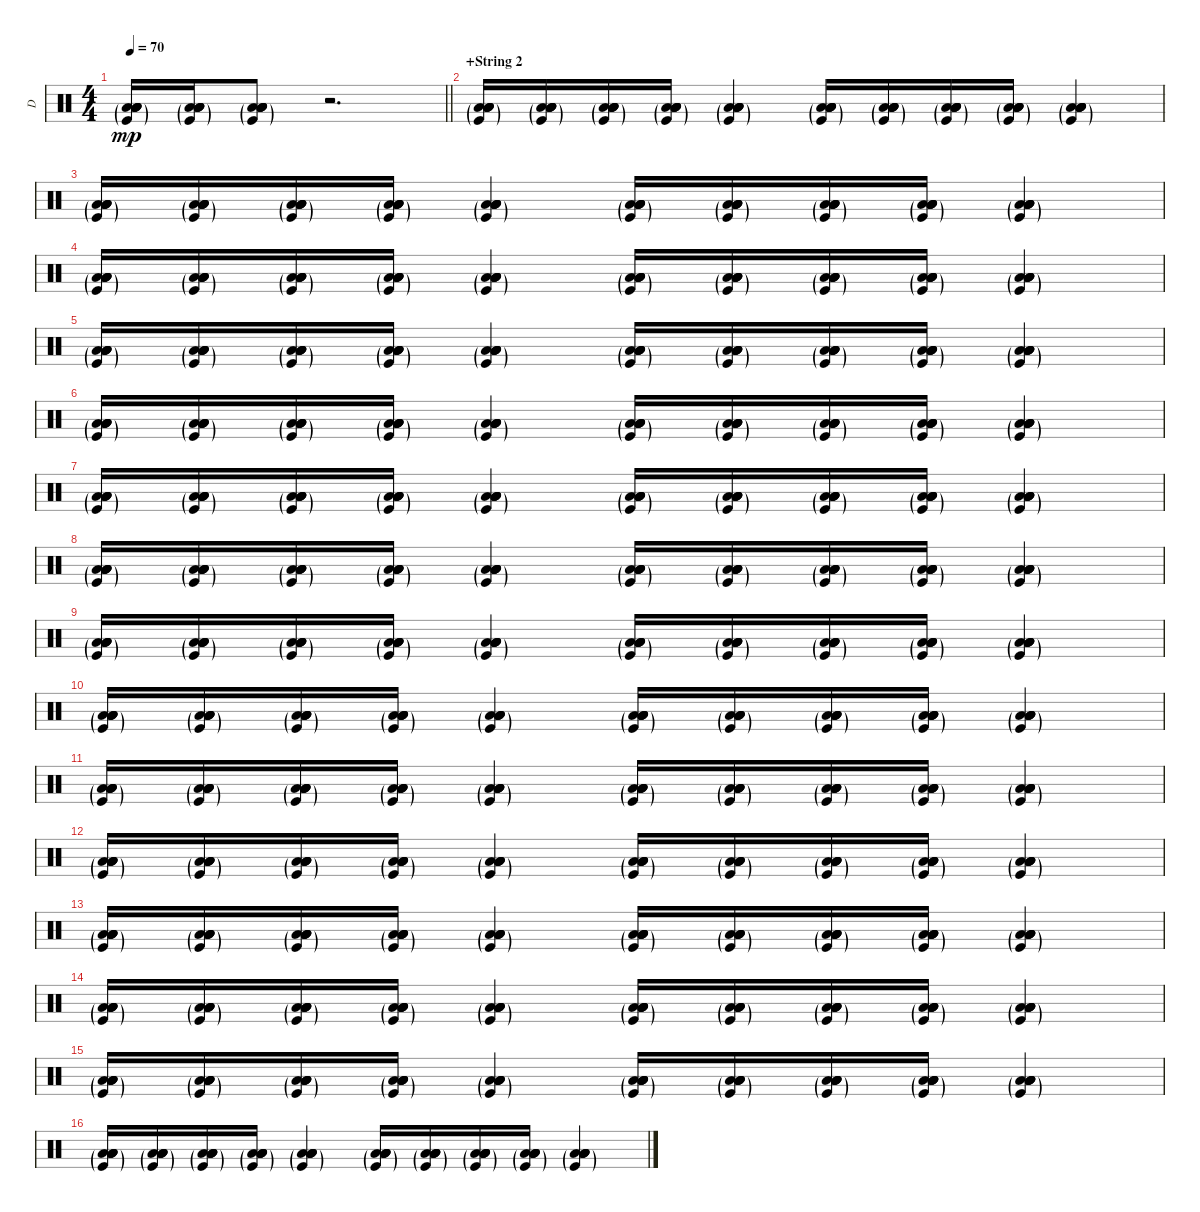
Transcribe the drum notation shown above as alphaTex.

\track ("D" "D") {instrument percussion}
\staff {score}
\articulation defaults
\ts (4 4)
\tempo 70
\clef neutral
\barLineRight lightlight
\ks c
("Low Floor Tom (hit)"{g} "Low Floor Tom (hit)"{g} "Low Floor Tom (hit)"{g} "Low Floor Tom (hit)"{g} "Low Floor Tom (hit)"{g} "Kick (hit)"{g}).16{dy mp} ("Low Floor Tom (hit)"{g} "Low Floor Tom (hit)"{g} "Low Floor Tom (hit)"{g} "Low Floor Tom (hit)"{g} "Low Floor Tom (hit)"{g} "Kick (hit)"{g}).16 ("Low Floor Tom (hit)"{g} "Low Floor Tom (hit)"{g} "Low Floor Tom (hit)"{g} "Low Floor Tom (hit)"{g} "Low Floor Tom (hit)"{g} "Kick (hit)"{g}).8 r.2{d} |
\section ("" "+String 2")
("Low Floor Tom (hit)"{g} "Low Floor Tom (hit)"{g} "Low Floor Tom (hit)"{g} "Low Floor Tom (hit)"{g} "Low Floor Tom (hit)"{g} "Kick (hit)"{g}).16 ("Low Floor Tom (hit)"{g} "Low Floor Tom (hit)"{g} "Low Floor Tom (hit)"{g} "Low Floor Tom (hit)"{g} "Low Floor Tom (hit)"{g} "Kick (hit)"{g}).16 ("Low Floor Tom (hit)"{g} "Low Floor Tom (hit)"{g} "Low Floor Tom (hit)"{g} "Low Floor Tom (hit)"{g} "Low Floor Tom (hit)"{g} "Kick (hit)"{g}).16 ("Low Floor Tom (hit)"{g} "Low Floor Tom (hit)"{g} "Low Floor Tom (hit)"{g} "Low Floor Tom (hit)"{g} "Low Floor Tom (hit)"{g} "Kick (hit)"{g}).16 ("Low Floor Tom (hit)"{g} "Low Floor Tom (hit)"{g} "Low Floor Tom (hit)"{g} "Low Floor Tom (hit)"{g} "Low Floor Tom (hit)"{g} "Kick (hit)"{g}).4 ("Low Floor Tom (hit)"{g} "Low Floor Tom (hit)"{g} "Low Floor Tom (hit)"{g} "Low Floor Tom (hit)"{g} "Low Floor Tom (hit)"{g} "Kick (hit)"{g}).16 ("Low Floor Tom (hit)"{g} "Low Floor Tom (hit)"{g} "Low Floor Tom (hit)"{g} "Low Floor Tom (hit)"{g} "Low Floor Tom (hit)"{g} "Kick (hit)"{g}).16 ("Low Floor Tom (hit)"{g} "Low Floor Tom (hit)"{g} "Low Floor Tom (hit)"{g} "Low Floor Tom (hit)"{g} "Low Floor Tom (hit)"{g} "Kick (hit)"{g}).16 ("Low Floor Tom (hit)"{g} "Low Floor Tom (hit)"{g} "Low Floor Tom (hit)"{g} "Low Floor Tom (hit)"{g} "Low Floor Tom (hit)"{g} "Kick (hit)"{g}).16 ("Low Floor Tom (hit)"{g} "Low Floor Tom (hit)"{g} "Low Floor Tom (hit)"{g} "Low Floor Tom (hit)"{g} "Low Floor Tom (hit)"{g} "Kick (hit)"{g}).4 |
("Low Floor Tom (hit)"{g} "Low Floor Tom (hit)"{g} "Low Floor Tom (hit)"{g} "Low Floor Tom (hit)"{g} "Low Floor Tom (hit)"{g} "Kick (hit)"{g}).16 ("Low Floor Tom (hit)"{g} "Low Floor Tom (hit)"{g} "Low Floor Tom (hit)"{g} "Low Floor Tom (hit)"{g} "Low Floor Tom (hit)"{g} "Kick (hit)"{g}).16 ("Low Floor Tom (hit)"{g} "Low Floor Tom (hit)"{g} "Low Floor Tom (hit)"{g} "Low Floor Tom (hit)"{g} "Low Floor Tom (hit)"{g} "Kick (hit)"{g}).16 ("Low Floor Tom (hit)"{g} "Low Floor Tom (hit)"{g} "Low Floor Tom (hit)"{g} "Low Floor Tom (hit)"{g} "Low Floor Tom (hit)"{g} "Kick (hit)"{g}).16 ("Low Floor Tom (hit)"{g} "Low Floor Tom (hit)"{g} "Low Floor Tom (hit)"{g} "Low Floor Tom (hit)"{g} "Low Floor Tom (hit)"{g} "Kick (hit)"{g}).4 ("Low Floor Tom (hit)"{g} "Low Floor Tom (hit)"{g} "Low Floor Tom (hit)"{g} "Low Floor Tom (hit)"{g} "Low Floor Tom (hit)"{g} "Kick (hit)"{g}).16 ("Low Floor Tom (hit)"{g} "Low Floor Tom (hit)"{g} "Low Floor Tom (hit)"{g} "Low Floor Tom (hit)"{g} "Low Floor Tom (hit)"{g} "Kick (hit)"{g}).16 ("Low Floor Tom (hit)"{g} "Low Floor Tom (hit)"{g} "Low Floor Tom (hit)"{g} "Low Floor Tom (hit)"{g} "Low Floor Tom (hit)"{g} "Kick (hit)"{g}).16 ("Low Floor Tom (hit)"{g} "Low Floor Tom (hit)"{g} "Low Floor Tom (hit)"{g} "Low Floor Tom (hit)"{g} "Low Floor Tom (hit)"{g} "Kick (hit)"{g}).16 ("Low Floor Tom (hit)"{g} "Low Floor Tom (hit)"{g} "Low Floor Tom (hit)"{g} "Low Floor Tom (hit)"{g} "Low Floor Tom (hit)"{g} "Kick (hit)"{g}).4 |
("Low Floor Tom (hit)"{g} "Low Floor Tom (hit)"{g} "Low Floor Tom (hit)"{g} "Low Floor Tom (hit)"{g} "Low Floor Tom (hit)"{g} "Kick (hit)"{g}).16 ("Low Floor Tom (hit)"{g} "Low Floor Tom (hit)"{g} "Low Floor Tom (hit)"{g} "Low Floor Tom (hit)"{g} "Low Floor Tom (hit)"{g} "Kick (hit)"{g}).16 ("Low Floor Tom (hit)"{g} "Low Floor Tom (hit)"{g} "Low Floor Tom (hit)"{g} "Low Floor Tom (hit)"{g} "Low Floor Tom (hit)"{g} "Kick (hit)"{g}).16 ("Low Floor Tom (hit)"{g} "Low Floor Tom (hit)"{g} "Low Floor Tom (hit)"{g} "Low Floor Tom (hit)"{g} "Low Floor Tom (hit)"{g} "Kick (hit)"{g}).16 ("Low Floor Tom (hit)"{g} "Low Floor Tom (hit)"{g} "Low Floor Tom (hit)"{g} "Low Floor Tom (hit)"{g} "Low Floor Tom (hit)"{g} "Kick (hit)"{g}).4 ("Low Floor Tom (hit)"{g} "Low Floor Tom (hit)"{g} "Low Floor Tom (hit)"{g} "Low Floor Tom (hit)"{g} "Low Floor Tom (hit)"{g} "Kick (hit)"{g}).16 ("Low Floor Tom (hit)"{g} "Low Floor Tom (hit)"{g} "Low Floor Tom (hit)"{g} "Low Floor Tom (hit)"{g} "Low Floor Tom (hit)"{g} "Kick (hit)"{g}).16 ("Low Floor Tom (hit)"{g} "Low Floor Tom (hit)"{g} "Low Floor Tom (hit)"{g} "Low Floor Tom (hit)"{g} "Low Floor Tom (hit)"{g} "Kick (hit)"{g}).16 ("Low Floor Tom (hit)"{g} "Low Floor Tom (hit)"{g} "Low Floor Tom (hit)"{g} "Low Floor Tom (hit)"{g} "Low Floor Tom (hit)"{g} "Kick (hit)"{g}).16 ("Low Floor Tom (hit)"{g} "Low Floor Tom (hit)"{g} "Low Floor Tom (hit)"{g} "Low Floor Tom (hit)"{g} "Low Floor Tom (hit)"{g} "Kick (hit)"{g}).4 |
("Low Floor Tom (hit)"{g} "Low Floor Tom (hit)"{g} "Low Floor Tom (hit)"{g} "Low Floor Tom (hit)"{g} "Low Floor Tom (hit)"{g} "Kick (hit)"{g}).16 ("Low Floor Tom (hit)"{g} "Low Floor Tom (hit)"{g} "Low Floor Tom (hit)"{g} "Low Floor Tom (hit)"{g} "Low Floor Tom (hit)"{g} "Kick (hit)"{g}).16 ("Low Floor Tom (hit)"{g} "Low Floor Tom (hit)"{g} "Low Floor Tom (hit)"{g} "Low Floor Tom (hit)"{g} "Low Floor Tom (hit)"{g} "Kick (hit)"{g}).16 ("Low Floor Tom (hit)"{g} "Low Floor Tom (hit)"{g} "Low Floor Tom (hit)"{g} "Low Floor Tom (hit)"{g} "Low Floor Tom (hit)"{g} "Kick (hit)"{g}).16 ("Low Floor Tom (hit)"{g} "Low Floor Tom (hit)"{g} "Low Floor Tom (hit)"{g} "Low Floor Tom (hit)"{g} "Low Floor Tom (hit)"{g} "Kick (hit)"{g}).4 ("Low Floor Tom (hit)"{g} "Low Floor Tom (hit)"{g} "Low Floor Tom (hit)"{g} "Low Floor Tom (hit)"{g} "Low Floor Tom (hit)"{g} "Kick (hit)"{g}).16 ("Low Floor Tom (hit)"{g} "Low Floor Tom (hit)"{g} "Low Floor Tom (hit)"{g} "Low Floor Tom (hit)"{g} "Low Floor Tom (hit)"{g} "Kick (hit)"{g}).16 ("Low Floor Tom (hit)"{g} "Low Floor Tom (hit)"{g} "Low Floor Tom (hit)"{g} "Low Floor Tom (hit)"{g} "Low Floor Tom (hit)"{g} "Kick (hit)"{g}).16 ("Low Floor Tom (hit)"{g} "Low Floor Tom (hit)"{g} "Low Floor Tom (hit)"{g} "Low Floor Tom (hit)"{g} "Low Floor Tom (hit)"{g} "Kick (hit)"{g}).16 ("Low Floor Tom (hit)"{g} "Low Floor Tom (hit)"{g} "Low Floor Tom (hit)"{g} "Low Floor Tom (hit)"{g} "Low Floor Tom (hit)"{g} "Kick (hit)"{g}).4 |
("Low Floor Tom (hit)"{g} "Low Floor Tom (hit)"{g} "Low Floor Tom (hit)"{g} "Low Floor Tom (hit)"{g} "Low Floor Tom (hit)"{g} "Kick (hit)"{g}).16 ("Low Floor Tom (hit)"{g} "Low Floor Tom (hit)"{g} "Low Floor Tom (hit)"{g} "Low Floor Tom (hit)"{g} "Low Floor Tom (hit)"{g} "Kick (hit)"{g}).16 ("Low Floor Tom (hit)"{g} "Low Floor Tom (hit)"{g} "Low Floor Tom (hit)"{g} "Low Floor Tom (hit)"{g} "Low Floor Tom (hit)"{g} "Kick (hit)"{g}).16 ("Low Floor Tom (hit)"{g} "Low Floor Tom (hit)"{g} "Low Floor Tom (hit)"{g} "Low Floor Tom (hit)"{g} "Low Floor Tom (hit)"{g} "Kick (hit)"{g}).16 ("Low Floor Tom (hit)"{g} "Low Floor Tom (hit)"{g} "Low Floor Tom (hit)"{g} "Low Floor Tom (hit)"{g} "Low Floor Tom (hit)"{g} "Kick (hit)"{g}).4 ("Low Floor Tom (hit)"{g} "Low Floor Tom (hit)"{g} "Low Floor Tom (hit)"{g} "Low Floor Tom (hit)"{g} "Low Floor Tom (hit)"{g} "Kick (hit)"{g}).16 ("Low Floor Tom (hit)"{g} "Low Floor Tom (hit)"{g} "Low Floor Tom (hit)"{g} "Low Floor Tom (hit)"{g} "Low Floor Tom (hit)"{g} "Kick (hit)"{g}).16 ("Low Floor Tom (hit)"{g} "Low Floor Tom (hit)"{g} "Low Floor Tom (hit)"{g} "Low Floor Tom (hit)"{g} "Low Floor Tom (hit)"{g} "Kick (hit)"{g}).16 ("Low Floor Tom (hit)"{g} "Low Floor Tom (hit)"{g} "Low Floor Tom (hit)"{g} "Low Floor Tom (hit)"{g} "Low Floor Tom (hit)"{g} "Kick (hit)"{g}).16 ("Low Floor Tom (hit)"{g} "Low Floor Tom (hit)"{g} "Low Floor Tom (hit)"{g} "Low Floor Tom (hit)"{g} "Low Floor Tom (hit)"{g} "Kick (hit)"{g}).4 |
("Low Floor Tom (hit)"{g} "Low Floor Tom (hit)"{g} "Low Floor Tom (hit)"{g} "Low Floor Tom (hit)"{g} "Low Floor Tom (hit)"{g} "Kick (hit)"{g}).16 ("Low Floor Tom (hit)"{g} "Low Floor Tom (hit)"{g} "Low Floor Tom (hit)"{g} "Low Floor Tom (hit)"{g} "Low Floor Tom (hit)"{g} "Kick (hit)"{g}).16 ("Low Floor Tom (hit)"{g} "Low Floor Tom (hit)"{g} "Low Floor Tom (hit)"{g} "Low Floor Tom (hit)"{g} "Low Floor Tom (hit)"{g} "Kick (hit)"{g}).16 ("Low Floor Tom (hit)"{g} "Low Floor Tom (hit)"{g} "Low Floor Tom (hit)"{g} "Low Floor Tom (hit)"{g} "Low Floor Tom (hit)"{g} "Kick (hit)"{g}).16 ("Low Floor Tom (hit)"{g} "Low Floor Tom (hit)"{g} "Low Floor Tom (hit)"{g} "Low Floor Tom (hit)"{g} "Low Floor Tom (hit)"{g} "Kick (hit)"{g}).4 ("Low Floor Tom (hit)"{g} "Low Floor Tom (hit)"{g} "Low Floor Tom (hit)"{g} "Low Floor Tom (hit)"{g} "Low Floor Tom (hit)"{g} "Kick (hit)"{g}).16 ("Low Floor Tom (hit)"{g} "Low Floor Tom (hit)"{g} "Low Floor Tom (hit)"{g} "Low Floor Tom (hit)"{g} "Low Floor Tom (hit)"{g} "Kick (hit)"{g}).16 ("Low Floor Tom (hit)"{g} "Low Floor Tom (hit)"{g} "Low Floor Tom (hit)"{g} "Low Floor Tom (hit)"{g} "Low Floor Tom (hit)"{g} "Kick (hit)"{g}).16 ("Low Floor Tom (hit)"{g} "Low Floor Tom (hit)"{g} "Low Floor Tom (hit)"{g} "Low Floor Tom (hit)"{g} "Low Floor Tom (hit)"{g} "Kick (hit)"{g}).16 ("Low Floor Tom (hit)"{g} "Low Floor Tom (hit)"{g} "Low Floor Tom (hit)"{g} "Low Floor Tom (hit)"{g} "Low Floor Tom (hit)"{g} "Kick (hit)"{g}).4 |
("Low Floor Tom (hit)"{g} "Low Floor Tom (hit)"{g} "Low Floor Tom (hit)"{g} "Low Floor Tom (hit)"{g} "Low Floor Tom (hit)"{g} "Kick (hit)"{g}).16 ("Low Floor Tom (hit)"{g} "Low Floor Tom (hit)"{g} "Low Floor Tom (hit)"{g} "Low Floor Tom (hit)"{g} "Low Floor Tom (hit)"{g} "Kick (hit)"{g}).16 ("Low Floor Tom (hit)"{g} "Low Floor Tom (hit)"{g} "Low Floor Tom (hit)"{g} "Low Floor Tom (hit)"{g} "Low Floor Tom (hit)"{g} "Kick (hit)"{g}).16 ("Low Floor Tom (hit)"{g} "Low Floor Tom (hit)"{g} "Low Floor Tom (hit)"{g} "Low Floor Tom (hit)"{g} "Low Floor Tom (hit)"{g} "Kick (hit)"{g}).16 ("Low Floor Tom (hit)"{g} "Low Floor Tom (hit)"{g} "Low Floor Tom (hit)"{g} "Low Floor Tom (hit)"{g} "Low Floor Tom (hit)"{g} "Kick (hit)"{g}).4 ("Low Floor Tom (hit)"{g} "Low Floor Tom (hit)"{g} "Low Floor Tom (hit)"{g} "Low Floor Tom (hit)"{g} "Low Floor Tom (hit)"{g} "Kick (hit)"{g}).16 ("Low Floor Tom (hit)"{g} "Low Floor Tom (hit)"{g} "Low Floor Tom (hit)"{g} "Low Floor Tom (hit)"{g} "Low Floor Tom (hit)"{g} "Kick (hit)"{g}).16 ("Low Floor Tom (hit)"{g} "Low Floor Tom (hit)"{g} "Low Floor Tom (hit)"{g} "Low Floor Tom (hit)"{g} "Low Floor Tom (hit)"{g} "Kick (hit)"{g}).16 ("Low Floor Tom (hit)"{g} "Low Floor Tom (hit)"{g} "Low Floor Tom (hit)"{g} "Low Floor Tom (hit)"{g} "Low Floor Tom (hit)"{g} "Kick (hit)"{g}).16 ("Low Floor Tom (hit)"{g} "Low Floor Tom (hit)"{g} "Low Floor Tom (hit)"{g} "Low Floor Tom (hit)"{g} "Low Floor Tom (hit)"{g} "Kick (hit)"{g}).4 |
("Low Floor Tom (hit)"{g} "Low Floor Tom (hit)"{g} "Low Floor Tom (hit)"{g} "Low Floor Tom (hit)"{g} "Low Floor Tom (hit)"{g} "Kick (hit)"{g}).16 ("Low Floor Tom (hit)"{g} "Low Floor Tom (hit)"{g} "Low Floor Tom (hit)"{g} "Low Floor Tom (hit)"{g} "Low Floor Tom (hit)"{g} "Kick (hit)"{g}).16 ("Low Floor Tom (hit)"{g} "Low Floor Tom (hit)"{g} "Low Floor Tom (hit)"{g} "Low Floor Tom (hit)"{g} "Low Floor Tom (hit)"{g} "Kick (hit)"{g}).16 ("Low Floor Tom (hit)"{g} "Low Floor Tom (hit)"{g} "Low Floor Tom (hit)"{g} "Low Floor Tom (hit)"{g} "Low Floor Tom (hit)"{g} "Kick (hit)"{g}).16 ("Low Floor Tom (hit)"{g} "Low Floor Tom (hit)"{g} "Low Floor Tom (hit)"{g} "Low Floor Tom (hit)"{g} "Low Floor Tom (hit)"{g} "Kick (hit)"{g}).4 ("Low Floor Tom (hit)"{g} "Low Floor Tom (hit)"{g} "Low Floor Tom (hit)"{g} "Low Floor Tom (hit)"{g} "Low Floor Tom (hit)"{g} "Kick (hit)"{g}).16 ("Low Floor Tom (hit)"{g} "Low Floor Tom (hit)"{g} "Low Floor Tom (hit)"{g} "Low Floor Tom (hit)"{g} "Low Floor Tom (hit)"{g} "Kick (hit)"{g}).16 ("Low Floor Tom (hit)"{g} "Low Floor Tom (hit)"{g} "Low Floor Tom (hit)"{g} "Low Floor Tom (hit)"{g} "Low Floor Tom (hit)"{g} "Kick (hit)"{g}).16 ("Low Floor Tom (hit)"{g} "Low Floor Tom (hit)"{g} "Low Floor Tom (hit)"{g} "Low Floor Tom (hit)"{g} "Low Floor Tom (hit)"{g} "Kick (hit)"{g}).16 ("Low Floor Tom (hit)"{g} "Low Floor Tom (hit)"{g} "Low Floor Tom (hit)"{g} "Low Floor Tom (hit)"{g} "Low Floor Tom (hit)"{g} "Kick (hit)"{g}).4 |
("Low Floor Tom (hit)"{g} "Low Floor Tom (hit)"{g} "Low Floor Tom (hit)"{g} "Low Floor Tom (hit)"{g} "Low Floor Tom (hit)"{g} "Kick (hit)"{g}).16 ("Low Floor Tom (hit)"{g} "Low Floor Tom (hit)"{g} "Low Floor Tom (hit)"{g} "Low Floor Tom (hit)"{g} "Low Floor Tom (hit)"{g} "Kick (hit)"{g}).16 ("Low Floor Tom (hit)"{g} "Low Floor Tom (hit)"{g} "Low Floor Tom (hit)"{g} "Low Floor Tom (hit)"{g} "Low Floor Tom (hit)"{g} "Kick (hit)"{g}).16 ("Low Floor Tom (hit)"{g} "Low Floor Tom (hit)"{g} "Low Floor Tom (hit)"{g} "Low Floor Tom (hit)"{g} "Low Floor Tom (hit)"{g} "Kick (hit)"{g}).16 ("Low Floor Tom (hit)"{g} "Low Floor Tom (hit)"{g} "Low Floor Tom (hit)"{g} "Low Floor Tom (hit)"{g} "Low Floor Tom (hit)"{g} "Kick (hit)"{g}).4 ("Low Floor Tom (hit)"{g} "Low Floor Tom (hit)"{g} "Low Floor Tom (hit)"{g} "Low Floor Tom (hit)"{g} "Low Floor Tom (hit)"{g} "Kick (hit)"{g}).16 ("Low Floor Tom (hit)"{g} "Low Floor Tom (hit)"{g} "Low Floor Tom (hit)"{g} "Low Floor Tom (hit)"{g} "Low Floor Tom (hit)"{g} "Kick (hit)"{g}).16 ("Low Floor Tom (hit)"{g} "Low Floor Tom (hit)"{g} "Low Floor Tom (hit)"{g} "Low Floor Tom (hit)"{g} "Low Floor Tom (hit)"{g} "Kick (hit)"{g}).16 ("Low Floor Tom (hit)"{g} "Low Floor Tom (hit)"{g} "Low Floor Tom (hit)"{g} "Low Floor Tom (hit)"{g} "Low Floor Tom (hit)"{g} "Kick (hit)"{g}).16 ("Low Floor Tom (hit)"{g} "Low Floor Tom (hit)"{g} "Low Floor Tom (hit)"{g} "Low Floor Tom (hit)"{g} "Low Floor Tom (hit)"{g} "Kick (hit)"{g}).4 |
("Low Floor Tom (hit)"{g} "Low Floor Tom (hit)"{g} "Low Floor Tom (hit)"{g} "Low Floor Tom (hit)"{g} "Low Floor Tom (hit)"{g} "Kick (hit)"{g}).16 ("Low Floor Tom (hit)"{g} "Low Floor Tom (hit)"{g} "Low Floor Tom (hit)"{g} "Low Floor Tom (hit)"{g} "Low Floor Tom (hit)"{g} "Kick (hit)"{g}).16 ("Low Floor Tom (hit)"{g} "Low Floor Tom (hit)"{g} "Low Floor Tom (hit)"{g} "Low Floor Tom (hit)"{g} "Low Floor Tom (hit)"{g} "Kick (hit)"{g}).16 ("Low Floor Tom (hit)"{g} "Low Floor Tom (hit)"{g} "Low Floor Tom (hit)"{g} "Low Floor Tom (hit)"{g} "Low Floor Tom (hit)"{g} "Kick (hit)"{g}).16 ("Low Floor Tom (hit)"{g} "Low Floor Tom (hit)"{g} "Low Floor Tom (hit)"{g} "Low Floor Tom (hit)"{g} "Low Floor Tom (hit)"{g} "Kick (hit)"{g}).4 ("Low Floor Tom (hit)"{g} "Low Floor Tom (hit)"{g} "Low Floor Tom (hit)"{g} "Low Floor Tom (hit)"{g} "Low Floor Tom (hit)"{g} "Kick (hit)"{g}).16 ("Low Floor Tom (hit)"{g} "Low Floor Tom (hit)"{g} "Low Floor Tom (hit)"{g} "Low Floor Tom (hit)"{g} "Low Floor Tom (hit)"{g} "Kick (hit)"{g}).16 ("Low Floor Tom (hit)"{g} "Low Floor Tom (hit)"{g} "Low Floor Tom (hit)"{g} "Low Floor Tom (hit)"{g} "Low Floor Tom (hit)"{g} "Kick (hit)"{g}).16 ("Low Floor Tom (hit)"{g} "Low Floor Tom (hit)"{g} "Low Floor Tom (hit)"{g} "Low Floor Tom (hit)"{g} "Low Floor Tom (hit)"{g} "Kick (hit)"{g}).16 ("Low Floor Tom (hit)"{g} "Low Floor Tom (hit)"{g} "Low Floor Tom (hit)"{g} "Low Floor Tom (hit)"{g} "Low Floor Tom (hit)"{g} "Kick (hit)"{g}).4 |
("Low Floor Tom (hit)"{g} "Low Floor Tom (hit)"{g} "Low Floor Tom (hit)"{g} "Low Floor Tom (hit)"{g} "Low Floor Tom (hit)"{g} "Kick (hit)"{g}).16 ("Low Floor Tom (hit)"{g} "Low Floor Tom (hit)"{g} "Low Floor Tom (hit)"{g} "Low Floor Tom (hit)"{g} "Low Floor Tom (hit)"{g} "Kick (hit)"{g}).16 ("Low Floor Tom (hit)"{g} "Low Floor Tom (hit)"{g} "Low Floor Tom (hit)"{g} "Low Floor Tom (hit)"{g} "Low Floor Tom (hit)"{g} "Kick (hit)"{g}).16 ("Low Floor Tom (hit)"{g} "Low Floor Tom (hit)"{g} "Low Floor Tom (hit)"{g} "Low Floor Tom (hit)"{g} "Low Floor Tom (hit)"{g} "Kick (hit)"{g}).16 ("Low Floor Tom (hit)"{g} "Low Floor Tom (hit)"{g} "Low Floor Tom (hit)"{g} "Low Floor Tom (hit)"{g} "Low Floor Tom (hit)"{g} "Kick (hit)"{g}).4 ("Low Floor Tom (hit)"{g} "Low Floor Tom (hit)"{g} "Low Floor Tom (hit)"{g} "Low Floor Tom (hit)"{g} "Low Floor Tom (hit)"{g} "Kick (hit)"{g}).16 ("Low Floor Tom (hit)"{g} "Low Floor Tom (hit)"{g} "Low Floor Tom (hit)"{g} "Low Floor Tom (hit)"{g} "Low Floor Tom (hit)"{g} "Kick (hit)"{g}).16 ("Low Floor Tom (hit)"{g} "Low Floor Tom (hit)"{g} "Low Floor Tom (hit)"{g} "Low Floor Tom (hit)"{g} "Low Floor Tom (hit)"{g} "Kick (hit)"{g}).16 ("Low Floor Tom (hit)"{g} "Low Floor Tom (hit)"{g} "Low Floor Tom (hit)"{g} "Low Floor Tom (hit)"{g} "Low Floor Tom (hit)"{g} "Kick (hit)"{g}).16 ("Low Floor Tom (hit)"{g} "Low Floor Tom (hit)"{g} "Low Floor Tom (hit)"{g} "Low Floor Tom (hit)"{g} "Low Floor Tom (hit)"{g} "Kick (hit)"{g}).4 |
("Low Floor Tom (hit)"{g} "Low Floor Tom (hit)"{g} "Low Floor Tom (hit)"{g} "Low Floor Tom (hit)"{g} "Low Floor Tom (hit)"{g} "Kick (hit)"{g}).16 ("Low Floor Tom (hit)"{g} "Low Floor Tom (hit)"{g} "Low Floor Tom (hit)"{g} "Low Floor Tom (hit)"{g} "Low Floor Tom (hit)"{g} "Kick (hit)"{g}).16 ("Low Floor Tom (hit)"{g} "Low Floor Tom (hit)"{g} "Low Floor Tom (hit)"{g} "Low Floor Tom (hit)"{g} "Low Floor Tom (hit)"{g} "Kick (hit)"{g}).16 ("Low Floor Tom (hit)"{g} "Low Floor Tom (hit)"{g} "Low Floor Tom (hit)"{g} "Low Floor Tom (hit)"{g} "Low Floor Tom (hit)"{g} "Kick (hit)"{g}).16 ("Low Floor Tom (hit)"{g} "Low Floor Tom (hit)"{g} "Low Floor Tom (hit)"{g} "Low Floor Tom (hit)"{g} "Low Floor Tom (hit)"{g} "Kick (hit)"{g}).4 ("Low Floor Tom (hit)"{g} "Low Floor Tom (hit)"{g} "Low Floor Tom (hit)"{g} "Low Floor Tom (hit)"{g} "Low Floor Tom (hit)"{g} "Kick (hit)"{g}).16 ("Low Floor Tom (hit)"{g} "Low Floor Tom (hit)"{g} "Low Floor Tom (hit)"{g} "Low Floor Tom (hit)"{g} "Low Floor Tom (hit)"{g} "Kick (hit)"{g}).16 ("Low Floor Tom (hit)"{g} "Low Floor Tom (hit)"{g} "Low Floor Tom (hit)"{g} "Low Floor Tom (hit)"{g} "Low Floor Tom (hit)"{g} "Kick (hit)"{g}).16 ("Low Floor Tom (hit)"{g} "Low Floor Tom (hit)"{g} "Low Floor Tom (hit)"{g} "Low Floor Tom (hit)"{g} "Low Floor Tom (hit)"{g} "Kick (hit)"{g}).16 ("Low Floor Tom (hit)"{g} "Low Floor Tom (hit)"{g} "Low Floor Tom (hit)"{g} "Low Floor Tom (hit)"{g} "Low Floor Tom (hit)"{g} "Kick (hit)"{g}).4 |
("Low Floor Tom (hit)"{g} "Low Floor Tom (hit)"{g} "Low Floor Tom (hit)"{g} "Low Floor Tom (hit)"{g} "Low Floor Tom (hit)"{g} "Kick (hit)"{g}).16 ("Low Floor Tom (hit)"{g} "Low Floor Tom (hit)"{g} "Low Floor Tom (hit)"{g} "Low Floor Tom (hit)"{g} "Low Floor Tom (hit)"{g} "Kick (hit)"{g}).16 ("Low Floor Tom (hit)"{g} "Low Floor Tom (hit)"{g} "Low Floor Tom (hit)"{g} "Low Floor Tom (hit)"{g} "Low Floor Tom (hit)"{g} "Kick (hit)"{g}).16 ("Low Floor Tom (hit)"{g} "Low Floor Tom (hit)"{g} "Low Floor Tom (hit)"{g} "Low Floor Tom (hit)"{g} "Low Floor Tom (hit)"{g} "Kick (hit)"{g}).16 ("Low Floor Tom (hit)"{g} "Low Floor Tom (hit)"{g} "Low Floor Tom (hit)"{g} "Low Floor Tom (hit)"{g} "Low Floor Tom (hit)"{g} "Kick (hit)"{g}).4 ("Low Floor Tom (hit)"{g} "Low Floor Tom (hit)"{g} "Low Floor Tom (hit)"{g} "Low Floor Tom (hit)"{g} "Low Floor Tom (hit)"{g} "Kick (hit)"{g}).16 ("Low Floor Tom (hit)"{g} "Low Floor Tom (hit)"{g} "Low Floor Tom (hit)"{g} "Low Floor Tom (hit)"{g} "Low Floor Tom (hit)"{g} "Kick (hit)"{g}).16 ("Low Floor Tom (hit)"{g} "Low Floor Tom (hit)"{g} "Low Floor Tom (hit)"{g} "Low Floor Tom (hit)"{g} "Low Floor Tom (hit)"{g} "Kick (hit)"{g}).16 ("Low Floor Tom (hit)"{g} "Low Floor Tom (hit)"{g} "Low Floor Tom (hit)"{g} "Low Floor Tom (hit)"{g} "Low Floor Tom (hit)"{g} "Kick (hit)"{g}).16 ("Low Floor Tom (hit)"{g} "Low Floor Tom (hit)"{g} "Low Floor Tom (hit)"{g} "Low Floor Tom (hit)"{g} "Low Floor Tom (hit)"{g} "Kick (hit)"{g}).4 |
("Low Floor Tom (hit)"{g} "Low Floor Tom (hit)"{g} "Low Floor Tom (hit)"{g} "Low Floor Tom (hit)"{g} "Low Floor Tom (hit)"{g} "Kick (hit)"{g}).16 ("Low Floor Tom (hit)"{g} "Low Floor Tom (hit)"{g} "Low Floor Tom (hit)"{g} "Low Floor Tom (hit)"{g} "Low Floor Tom (hit)"{g} "Kick (hit)"{g}).16 ("Low Floor Tom (hit)"{g} "Low Floor Tom (hit)"{g} "Low Floor Tom (hit)"{g} "Low Floor Tom (hit)"{g} "Low Floor Tom (hit)"{g} "Kick (hit)"{g}).16 ("Low Floor Tom (hit)"{g} "Low Floor Tom (hit)"{g} "Low Floor Tom (hit)"{g} "Low Floor Tom (hit)"{g} "Low Floor Tom (hit)"{g} "Kick (hit)"{g}).16 ("Low Floor Tom (hit)"{g} "Low Floor Tom (hit)"{g} "Low Floor Tom (hit)"{g} "Low Floor Tom (hit)"{g} "Low Floor Tom (hit)"{g} "Kick (hit)"{g}).4 ("Low Floor Tom (hit)"{g} "Low Floor Tom (hit)"{g} "Low Floor Tom (hit)"{g} "Low Floor Tom (hit)"{g} "Low Floor Tom (hit)"{g} "Kick (hit)"{g}).16 ("Low Floor Tom (hit)"{g} "Low Floor Tom (hit)"{g} "Low Floor Tom (hit)"{g} "Low Floor Tom (hit)"{g} "Low Floor Tom (hit)"{g} "Kick (hit)"{g}).16 ("Low Floor Tom (hit)"{g} "Low Floor Tom (hit)"{g} "Low Floor Tom (hit)"{g} "Low Floor Tom (hit)"{g} "Low Floor Tom (hit)"{g} "Kick (hit)"{g}).16 ("Low Floor Tom (hit)"{g} "Low Floor Tom (hit)"{g} "Low Floor Tom (hit)"{g} "Low Floor Tom (hit)"{g} "Low Floor Tom (hit)"{g} "Kick (hit)"{g}).16 ("Low Floor Tom (hit)"{g} "Low Floor Tom (hit)"{g} "Low Floor Tom (hit)"{g} "Low Floor Tom (hit)"{g} "Low Floor Tom (hit)"{g} "Kick (hit)"{g}).4 |
("Low Floor Tom (hit)"{g} "Low Floor Tom (hit)"{g} "Low Floor Tom (hit)"{g} "Low Floor Tom (hit)"{g} "Low Floor Tom (hit)"{g} "Kick (hit)"{g}).16 ("Low Floor Tom (hit)"{g} "Low Floor Tom (hit)"{g} "Low Floor Tom (hit)"{g} "Low Floor Tom (hit)"{g} "Low Floor Tom (hit)"{g} "Kick (hit)"{g}).16 ("Low Floor Tom (hit)"{g} "Low Floor Tom (hit)"{g} "Low Floor Tom (hit)"{g} "Low Floor Tom (hit)"{g} "Low Floor Tom (hit)"{g} "Kick (hit)"{g}).16 ("Low Floor Tom (hit)"{g} "Low Floor Tom (hit)"{g} "Low Floor Tom (hit)"{g} "Low Floor Tom (hit)"{g} "Low Floor Tom (hit)"{g} "Kick (hit)"{g}).16 ("Low Floor Tom (hit)"{g} "Low Floor Tom (hit)"{g} "Low Floor Tom (hit)"{g} "Low Floor Tom (hit)"{g} "Low Floor Tom (hit)"{g} "Kick (hit)"{g}).4 ("Low Floor Tom (hit)"{g} "Low Floor Tom (hit)"{g} "Low Floor Tom (hit)"{g} "Low Floor Tom (hit)"{g} "Low Floor Tom (hit)"{g} "Kick (hit)"{g}).16 ("Low Floor Tom (hit)"{g} "Low Floor Tom (hit)"{g} "Low Floor Tom (hit)"{g} "Low Floor Tom (hit)"{g} "Low Floor Tom (hit)"{g} "Kick (hit)"{g}).16 ("Low Floor Tom (hit)"{g} "Low Floor Tom (hit)"{g} "Low Floor Tom (hit)"{g} "Low Floor Tom (hit)"{g} "Low Floor Tom (hit)"{g} "Kick (hit)"{g}).16 ("Low Floor Tom (hit)"{g} "Low Floor Tom (hit)"{g} "Low Floor Tom (hit)"{g} "Low Floor Tom (hit)"{g} "Low Floor Tom (hit)"{g} "Kick (hit)"{g}).16 ("Low Floor Tom (hit)"{g} "Low Floor Tom (hit)"{g} "Low Floor Tom (hit)"{g} "Low Floor Tom (hit)"{g} "Low Floor Tom (hit)"{g} "Kick (hit)"{g}).4
